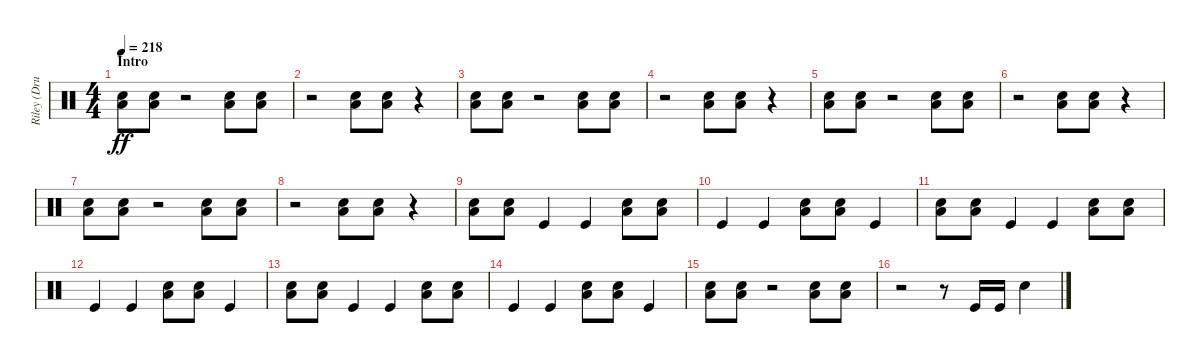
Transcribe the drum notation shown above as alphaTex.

\track ("Riley (Drums)" "Riley (Dru") {instrument percussion}
\staff {score}
\articulation defaults
\ts (4 4)
\section ("" "Intro")
\tempo 218
\clef neutral
\ks c
("Electric Snare (hit)" "Low Floor Tom (hit)").8{dy ff} ("Electric Snare (hit)" "Low Floor Tom (hit)").8 r.2 ("Electric Snare (hit)" "Low Floor Tom (hit)").8 ("Electric Snare (hit)" "Low Floor Tom (hit)").8 |
r.2 ("Electric Snare (hit)" "Low Floor Tom (hit)").8 ("Electric Snare (hit)" "Low Floor Tom (hit)").8 r.4 |
("Electric Snare (hit)" "Low Floor Tom (hit)").8 ("Electric Snare (hit)" "Low Floor Tom (hit)").8 r.2 ("Electric Snare (hit)" "Low Floor Tom (hit)").8 ("Electric Snare (hit)" "Low Floor Tom (hit)").8 |
r.2 ("Electric Snare (hit)" "Low Floor Tom (hit)").8 ("Electric Snare (hit)" "Low Floor Tom (hit)").8 r.4 |
("Electric Snare (hit)" "Low Floor Tom (hit)").8 ("Electric Snare (hit)" "Low Floor Tom (hit)").8 r.2 ("Electric Snare (hit)" "Low Floor Tom (hit)").8 ("Electric Snare (hit)" "Low Floor Tom (hit)").8 |
r.2 ("Electric Snare (hit)" "Low Floor Tom (hit)").8 ("Electric Snare (hit)" "Low Floor Tom (hit)").8 r.4 |
("Electric Snare (hit)" "Low Floor Tom (hit)").8 ("Electric Snare (hit)" "Low Floor Tom (hit)").8 r.2 ("Electric Snare (hit)" "Low Floor Tom (hit)").8 ("Electric Snare (hit)" "Low Floor Tom (hit)").8 |
r.2 ("Electric Snare (hit)" "Low Floor Tom (hit)").8 ("Electric Snare (hit)" "Low Floor Tom (hit)").8 r.4 |
("Electric Snare (hit)" "Low Floor Tom (hit)").8 ("Electric Snare (hit)" "Low Floor Tom (hit)").8 "Kick (hit)".4 "Kick (hit)".4 ("Electric Snare (hit)" "Low Floor Tom (hit)").8 ("Electric Snare (hit)" "Low Floor Tom (hit)").8 |
"Kick (hit)".4 "Kick (hit)".4 ("Electric Snare (hit)" "Low Floor Tom (hit)").8 ("Electric Snare (hit)" "Low Floor Tom (hit)").8 "Kick (hit)".4 |
("Electric Snare (hit)" "Low Floor Tom (hit)").8 ("Electric Snare (hit)" "Low Floor Tom (hit)").8 "Kick (hit)".4 "Kick (hit)".4 ("Electric Snare (hit)" "Low Floor Tom (hit)").8 ("Electric Snare (hit)" "Low Floor Tom (hit)").8 |
"Kick (hit)".4 "Kick (hit)".4 ("Electric Snare (hit)" "Low Floor Tom (hit)").8 ("Electric Snare (hit)" "Low Floor Tom (hit)").8 "Kick (hit)".4 |
("Electric Snare (hit)" "Low Floor Tom (hit)").8 ("Electric Snare (hit)" "Low Floor Tom (hit)").8 "Kick (hit)".4 "Kick (hit)".4 ("Electric Snare (hit)" "Low Floor Tom (hit)").8 ("Electric Snare (hit)" "Low Floor Tom (hit)").8 |
"Kick (hit)".4 "Kick (hit)".4 ("Electric Snare (hit)" "Low Floor Tom (hit)").8 ("Electric Snare (hit)" "Low Floor Tom (hit)").8 "Kick (hit)".4 |
("Electric Snare (hit)" "Low Floor Tom (hit)").8 ("Electric Snare (hit)" "Low Floor Tom (hit)").8 r.2 ("Electric Snare (hit)" "Low Floor Tom (hit)").8 ("Electric Snare (hit)" "Low Floor Tom (hit)").8 |
r.2 r.8 "Kick (hit)".16 "Kick (hit)".16 "Electric Snare (hit)".4
